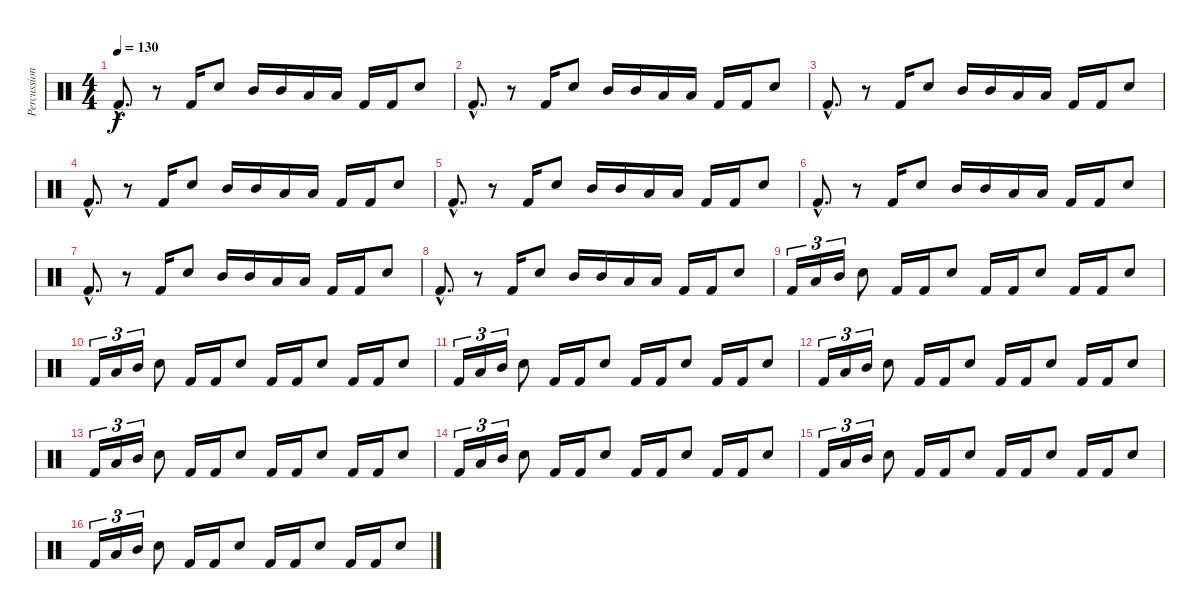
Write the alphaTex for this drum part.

\track ("Percussion" "Percussion") {instrument percussion}
\staff {score}
\articulation defaults
\ts (4 4)
\tempo 130
\clef neutral
\ks c "Kick (hit) 2"{hac}.8{d dy f}
r.8 "Kick (hit) 2".16 "Snare (hit) 2".8 "Mid Tom (hit)".16 "Mid Tom (hit)".16 "Low Tom (hit)".16 "Low Tom (hit)".16 "Kick (hit) 2".16 "Kick (hit) 2".16 "Snare (hit) 2".8 |
"Kick (hit) 2"{hac}.8{d} r.8 "Kick (hit) 2".16 "Snare (hit) 2".8 "Mid Tom (hit)".16 "Mid Tom (hit)".16 "Low Tom (hit)".16 "Low Tom (hit)".16 "Kick (hit) 2".16 "Kick (hit) 2".16 "Snare (hit) 2".8 |
"Kick (hit) 2"{hac}.8{d} r.8 "Kick (hit) 2".16 "Snare (hit) 2".8 "Mid Tom (hit)".16 "Mid Tom (hit)".16 "Low Tom (hit)".16 "Low Tom (hit)".16 "Kick (hit) 2".16 "Kick (hit) 2".16 "Snare (hit) 2".8 |
"Kick (hit) 2"{hac}.8{d} r.8 "Kick (hit) 2".16 "Snare (hit) 2".8 "Mid Tom (hit)".16 "Mid Tom (hit)".16 "Low Tom (hit)".16 "Low Tom (hit)".16 "Kick (hit) 2".16 "Kick (hit) 2".16 "Snare (hit) 2".8 |
"Kick (hit) 2"{hac}.8{d} r.8 "Kick (hit) 2".16 "Snare (hit) 2".8 "Mid Tom (hit)".16 "Mid Tom (hit)".16 "Low Tom (hit)".16 "Low Tom (hit)".16 "Kick (hit) 2".16 "Kick (hit) 2".16 "Snare (hit) 2".8 |
"Kick (hit) 2"{hac}.8{d} r.8 "Kick (hit) 2".16 "Snare (hit) 2".8 "Mid Tom (hit)".16 "Mid Tom (hit)".16 "Low Tom (hit)".16 "Low Tom (hit)".16 "Kick (hit) 2".16 "Kick (hit) 2".16 "Snare (hit) 2".8 |
"Kick (hit) 2"{hac}.8{d} r.8 "Kick (hit) 2".16 "Snare (hit) 2".8 "Mid Tom (hit)".16 "Mid Tom (hit)".16 "Low Tom (hit)".16 "Low Tom (hit)".16 "Kick (hit) 2".16 "Kick (hit) 2".16 "Snare (hit) 2".8 |
"Kick (hit) 2"{hac}.8{d} r.8 "Kick (hit) 2".16 "Snare (hit) 2".8 "Mid Tom (hit)".16 "Mid Tom (hit)".16 "Low Tom (hit)".16 "Low Tom (hit)".16 "Kick (hit) 2".16 "Kick (hit) 2".16 "Snare (hit) 2".8 |
"Kick (hit) 2".16{tu (3 2)} "Low Tom (hit)".16{tu (3 2)} "Mid Tom (hit)".16{tu (3 2)} "Snare (hit) 2".8 "Kick (hit) 2".16 "Kick (hit) 2".16 "Snare (hit) 2".8 "Kick (hit) 2".16 "Kick (hit) 2".16 "Snare (hit) 2".8 "Kick (hit) 2".16 "Kick (hit) 2".16 "Snare (hit) 2".8 |
"Kick (hit) 2".16{tu (3 2)} "Low Tom (hit)".16{tu (3 2)} "Mid Tom (hit)".16{tu (3 2)} "Snare (hit) 2".8 "Kick (hit) 2".16 "Kick (hit) 2".16 "Snare (hit) 2".8 "Kick (hit) 2".16 "Kick (hit) 2".16 "Snare (hit) 2".8 "Kick (hit) 2".16 "Kick (hit) 2".16 "Snare (hit) 2".8 |
"Kick (hit) 2".16{tu (3 2)} "Low Tom (hit)".16{tu (3 2)} "Mid Tom (hit)".16{tu (3 2)} "Snare (hit) 2".8 "Kick (hit) 2".16 "Kick (hit) 2".16 "Snare (hit) 2".8 "Kick (hit) 2".16 "Kick (hit) 2".16 "Snare (hit) 2".8 "Kick (hit) 2".16 "Kick (hit) 2".16 "Snare (hit) 2".8 |
"Kick (hit) 2".16{tu (3 2)} "Low Tom (hit)".16{tu (3 2)} "Mid Tom (hit)".16{tu (3 2)} "Snare (hit) 2".8 "Kick (hit) 2".16 "Kick (hit) 2".16 "Snare (hit) 2".8 "Kick (hit) 2".16 "Kick (hit) 2".16 "Snare (hit) 2".8 "Kick (hit) 2".16 "Kick (hit) 2".16 "Snare (hit) 2".8 |
"Kick (hit) 2".16{tu (3 2)} "Low Tom (hit)".16{tu (3 2)} "Mid Tom (hit)".16{tu (3 2)} "Snare (hit) 2".8 "Kick (hit) 2".16 "Kick (hit) 2".16 "Snare (hit) 2".8 "Kick (hit) 2".16 "Kick (hit) 2".16 "Snare (hit) 2".8 "Kick (hit) 2".16 "Kick (hit) 2".16 "Snare (hit) 2".8 |
"Kick (hit) 2".16{tu (3 2)} "Low Tom (hit)".16{tu (3 2)} "Mid Tom (hit)".16{tu (3 2)} "Snare (hit) 2".8 "Kick (hit) 2".16 "Kick (hit) 2".16 "Snare (hit) 2".8 "Kick (hit) 2".16 "Kick (hit) 2".16 "Snare (hit) 2".8 "Kick (hit) 2".16 "Kick (hit) 2".16 "Snare (hit) 2".8 |
"Kick (hit) 2".16{tu (3 2)} "Low Tom (hit)".16{tu (3 2)} "Mid Tom (hit)".16{tu (3 2)} "Snare (hit) 2".8 "Kick (hit) 2".16 "Kick (hit) 2".16 "Snare (hit) 2".8 "Kick (hit) 2".16 "Kick (hit) 2".16 "Snare (hit) 2".8 "Kick (hit) 2".16 "Kick (hit) 2".16 "Snare (hit) 2".8 |
"Kick (hit) 2".16{tu (3 2)} "Low Tom (hit)".16{tu (3 2)} "Mid Tom (hit)".16{tu (3 2)} "Snare (hit) 2".8 "Kick (hit) 2".16 "Kick (hit) 2".16 "Snare (hit) 2".8 "Kick (hit) 2".16 "Kick (hit) 2".16 "Snare (hit) 2".8 "Kick (hit) 2".16 "Kick (hit) 2".16 "Snare (hit) 2".8
